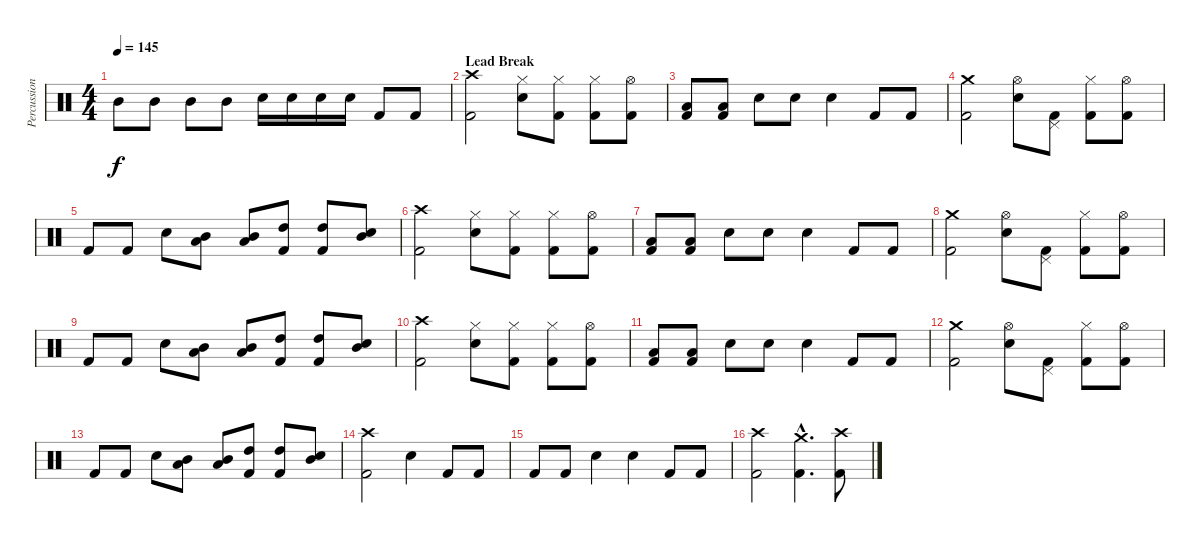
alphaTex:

\track ("Percussion" "Percussion") {instrument percussion}
\staff {score}
\articulation defaults
\ts (4 4)
\tempo 145
\clef neutral
\ks c "Mid Tom (hit)".8{dy f} "Mid Tom (hit)".8 "Mid Tom (hit)".8 "Mid Tom (hit)".8 "Snare (hit) 2".16 "Snare (hit) 2".16 "Snare (hit) 2".16 "Snare (hit) 2".16 "Kick (hit) 2".8 "Kick (hit) 2".8
|
\section ("" "Lead Break")
("Crash high (hit)" "Kick (hit) 2").2 ("Hi-Hat (closed)" "Snare (hit) 2").8 ("Hi-Hat (closed)" "Kick (hit) 2").8 ("Hi-Hat (closed)" "Kick (hit) 2").8 ("Hi-Hat (open)" "Kick (hit) 2").8 |
("Low Tom (hit)" "Kick (hit) 2").8 ("Low Tom (hit)" "Kick (hit) 2").8 "Snare (hit) 2".8 "Snare (hit)".8 "Snare (hit) 2".4 "Kick (hit) 2".8 "Kick (hit) 2".8 |
("Crash medium (hit)" "Kick (hit) 2").2 ("Hi-Hat (open)" "Snare (hit) 2").8 ("Pedal Hi-Hat (hit)" "Kick (hit) 2").8 ("Hi-Hat (closed)" "Kick (hit) 2").8 ("Hi-Hat (open)" "Kick (hit) 2").8 |
"Kick (hit) 2".8 "Kick (hit) 2".8 "Snare (hit) 2".8 ("Low Tom (hit)" "Mid Tom (hit)").8 ("Low Tom (hit)" "Mid Tom (hit)").8 ("High Tom (hit)" "Kick (hit) 2").8 ("High Tom (hit)" "Kick (hit) 2").8 ("Mid Tom (hit)" "Snare (hit) 2").8 |
("Crash high (hit)" "Kick (hit) 2").2 ("Hi-Hat (closed)" "Snare (hit) 2").8 ("Hi-Hat (closed)" "Kick (hit) 2").8 ("Hi-Hat (closed)" "Kick (hit) 2").8 ("Hi-Hat (open)" "Kick (hit) 2").8 |
("Low Tom (hit)" "Kick (hit) 2").8 ("Low Tom (hit)" "Kick (hit) 2").8 "Snare (hit) 2".8 "Snare (hit)".8 "Snare (hit) 2".4 "Kick (hit) 2".8 "Kick (hit) 2".8 |
("Crash medium (hit)" "Kick (hit) 2").2 ("Hi-Hat (open)" "Snare (hit) 2").8 ("Pedal Hi-Hat (hit)" "Kick (hit) 2").8 ("Hi-Hat (closed)" "Kick (hit) 2").8 ("Hi-Hat (open)" "Kick (hit) 2").8 |
"Kick (hit) 2".8 "Kick (hit) 2".8 "Snare (hit) 2".8 ("Low Tom (hit)" "Mid Tom (hit)").8 ("Low Tom (hit)" "Mid Tom (hit)").8 ("High Tom (hit)" "Kick (hit) 2").8 ("High Tom (hit)" "Kick (hit) 2").8 ("Mid Tom (hit)" "Snare (hit) 2").8 |
("Crash high (hit)" "Kick (hit) 2").2 ("Hi-Hat (closed)" "Snare (hit) 2").8 ("Hi-Hat (closed)" "Kick (hit) 2").8 ("Hi-Hat (closed)" "Kick (hit) 2").8 ("Hi-Hat (open)" "Kick (hit) 2").8 |
("Low Tom (hit)" "Kick (hit) 2").8 ("Low Tom (hit)" "Kick (hit) 2").8 "Snare (hit) 2".8 "Snare (hit)".8 "Snare (hit) 2".4 "Kick (hit) 2".8 "Kick (hit) 2".8 |
("Crash medium (hit)" "Kick (hit) 2").2 ("Hi-Hat (open)" "Snare (hit) 2").8 ("Pedal Hi-Hat (hit)" "Kick (hit) 2").8 ("Hi-Hat (closed)" "Kick (hit) 2").8 ("Hi-Hat (open)" "Kick (hit) 2").8 |
"Kick (hit) 2".8 "Kick (hit) 2".8 "Snare (hit) 2".8 ("Low Tom (hit)" "Mid Tom (hit)").8 ("Low Tom (hit)" "Mid Tom (hit)").8 ("High Tom (hit)" "Kick (hit) 2").8 ("High Tom (hit)" "Kick (hit) 2").8 ("Mid Tom (hit)" "Snare (hit) 2").8 |
("Crash high (hit)" "Kick (hit) 2").2 "Snare (hit) 2".4 "Kick (hit) 2".8 "Kick (hit) 2".8 |
"Kick (hit) 2".8 "Kick (hit) 2".8 "Snare (hit) 2".4 "Snare (hit) 2".4 "Kick (hit) 2".8 "Kick (hit) 2".8 |
("Crash high (hit)" "Kick (hit) 2").2 ("Crash medium (hit)"{hac} "Kick (hit) 2"{hac}).4{d} ("Crash high (hit)" "Kick (hit) 2").8
